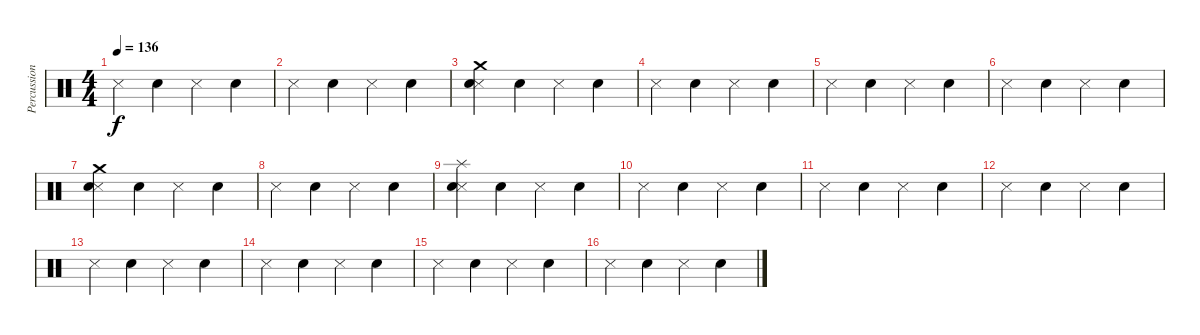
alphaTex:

\track ("Percussions" "Percussion") {instrument percussion}
\staff {score}
\articulation defaults
\ts (4 4)
\tempo 136
\clef neutral
\ks c "Snare (side stick) 3".4{dy f} "Electric Snare (hit)".4 "Snare (side stick) 3".4 "Electric Snare (hit)".4
|
"Snare (side stick) 3".4 "Electric Snare (hit)".4 "Snare (side stick) 3".4 "Electric Snare (hit)".4 |
("Snare (side stick) 3" "Electric Snare (hit)" "Crash medium (hit)").4 "Electric Snare (hit)".4 "Snare (side stick) 3".4 "Electric Snare (hit)".4 |
"Snare (side stick) 3".4 "Electric Snare (hit)".4 "Snare (side stick) 3".4 "Electric Snare (hit)".4 |
"Snare (side stick) 3".4 "Electric Snare (hit)".4 "Snare (side stick) 3".4 "Electric Snare (hit)".4 |
"Snare (side stick) 3".4 "Electric Snare (hit)".4 "Snare (side stick) 3".4 "Electric Snare (hit)".4 |
("Snare (side stick) 3" "Electric Snare (hit)" "Crash medium (hit)").4 "Electric Snare (hit)".4 "Snare (side stick) 3".4 "Electric Snare (hit)".4 |
"Snare (side stick) 3".4 "Electric Snare (hit)".4 "Snare (side stick) 3".4 "Electric Snare (hit)".4 |
("Snare (side stick) 3" "Electric Snare (hit)" "Splash (hit)").4 "Electric Snare (hit)".4 "Snare (side stick) 3".4 "Electric Snare (hit)".4 |
"Snare (side stick) 3".4 "Electric Snare (hit)".4 "Snare (side stick) 3".4 "Electric Snare (hit)".4 |
"Snare (side stick) 3".4 "Electric Snare (hit)".4 "Snare (side stick) 3".4 "Electric Snare (hit)".4 |
"Snare (side stick) 3".4 "Electric Snare (hit)".4 "Snare (side stick) 3".4 "Electric Snare (hit)".4 |
"Snare (side stick) 3".4 "Electric Snare (hit)".4 "Snare (side stick) 3".4 "Electric Snare (hit)".4 |
"Snare (side stick) 3".4 "Electric Snare (hit)".4 "Snare (side stick) 3".4 "Electric Snare (hit)".4 |
"Snare (side stick) 3".4 "Electric Snare (hit)".4 "Snare (side stick) 3".4 "Electric Snare (hit)".4 |
"Snare (side stick) 3".4 "Electric Snare (hit)".4 "Snare (side stick) 3".4 "Electric Snare (hit)".4
